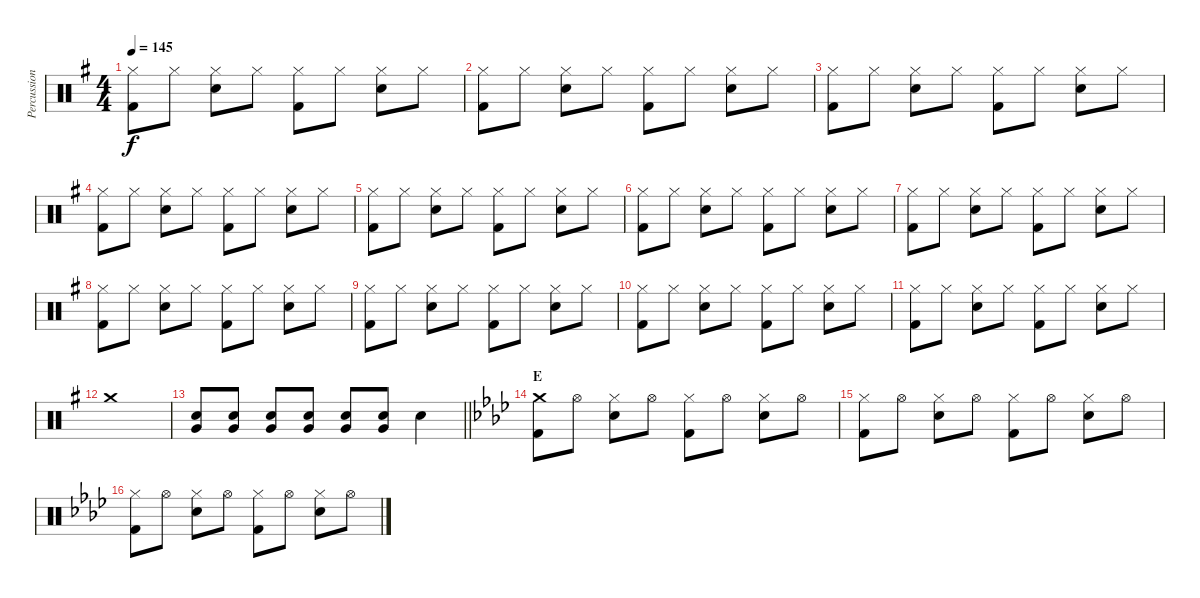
\track ("Percussion" "Percussion") {instrument percussion}
\staff {score}
\articulation defaults
\ts (4 4)
\tempo 145
\clef neutral
\ks g
("Hi-Hat (closed)" "Kick (hit) 2").8{dy f} "Hi-Hat (closed)".8 ("Hi-Hat (closed)" "Snare (hit) 2").8 "Hi-Hat (closed)".8 ("Hi-Hat (closed)" "Kick (hit) 2").8 "Hi-Hat (closed)".8 ("Hi-Hat (closed)" "Snare (hit) 2").8 "Hi-Hat (closed)".8 |
("Hi-Hat (closed)" "Kick (hit) 2").8 "Hi-Hat (closed)".8 ("Hi-Hat (closed)" "Snare (hit) 2").8 "Hi-Hat (closed)".8 ("Hi-Hat (closed)" "Kick (hit) 2").8 "Hi-Hat (closed)".8 ("Hi-Hat (closed)" "Snare (hit) 2").8 "Hi-Hat (closed)".8 |
("Hi-Hat (closed)" "Kick (hit) 2").8 "Hi-Hat (closed)".8 ("Hi-Hat (closed)" "Snare (hit) 2").8 "Hi-Hat (closed)".8 ("Hi-Hat (closed)" "Kick (hit) 2").8 "Hi-Hat (closed)".8 ("Hi-Hat (closed)" "Snare (hit) 2").8 "Hi-Hat (closed)".8 |
("Hi-Hat (closed)" "Kick (hit) 2").8 "Hi-Hat (closed)".8 ("Hi-Hat (closed)" "Snare (hit) 2").8 "Hi-Hat (closed)".8 ("Hi-Hat (closed)" "Kick (hit) 2").8 "Hi-Hat (closed)".8 ("Hi-Hat (closed)" "Snare (hit) 2").8 "Hi-Hat (closed)".8 |
("Hi-Hat (closed)" "Kick (hit) 2").8 "Hi-Hat (closed)".8 ("Hi-Hat (closed)" "Snare (hit) 2").8 "Hi-Hat (closed)".8 ("Hi-Hat (closed)" "Kick (hit) 2").8 "Hi-Hat (closed)".8 ("Hi-Hat (closed)" "Snare (hit) 2").8 "Hi-Hat (closed)".8 |
("Hi-Hat (closed)" "Kick (hit) 2").8 "Hi-Hat (closed)".8 ("Hi-Hat (closed)" "Snare (hit) 2").8 "Hi-Hat (closed)".8 ("Hi-Hat (closed)" "Kick (hit) 2").8 "Hi-Hat (closed)".8 ("Hi-Hat (closed)" "Snare (hit) 2").8 "Hi-Hat (closed)".8 |
("Hi-Hat (closed)" "Kick (hit) 2").8 "Hi-Hat (closed)".8 ("Hi-Hat (closed)" "Snare (hit) 2").8 "Hi-Hat (closed)".8 ("Hi-Hat (closed)" "Kick (hit) 2").8 "Hi-Hat (closed)".8 ("Hi-Hat (closed)" "Snare (hit) 2").8 "Hi-Hat (closed)".8 |
("Hi-Hat (closed)" "Kick (hit) 2").8 "Hi-Hat (closed)".8 ("Hi-Hat (closed)" "Snare (hit) 2").8 "Hi-Hat (closed)".8 ("Hi-Hat (closed)" "Kick (hit) 2").8 "Hi-Hat (closed)".8 ("Hi-Hat (closed)" "Snare (hit) 2").8 "Hi-Hat (closed)".8 |
("Hi-Hat (closed)" "Kick (hit) 2").8 "Hi-Hat (closed)".8 ("Hi-Hat (closed)" "Snare (hit) 2").8 "Hi-Hat (closed)".8 ("Hi-Hat (closed)" "Kick (hit) 2").8 "Hi-Hat (closed)".8 ("Hi-Hat (closed)" "Snare (hit) 2").8 "Hi-Hat (closed)".8 |
("Hi-Hat (closed)" "Kick (hit) 2").8 "Hi-Hat (closed)".8 ("Hi-Hat (closed)" "Snare (hit) 2").8 "Hi-Hat (closed)".8 ("Hi-Hat (closed)" "Kick (hit) 2").8 "Hi-Hat (closed)".8 ("Hi-Hat (closed)" "Snare (hit) 2").8 "Hi-Hat (closed)".8 |
("Hi-Hat (closed)" "Kick (hit) 2").8 "Hi-Hat (closed)".8 ("Hi-Hat (closed)" "Snare (hit) 2").8 "Hi-Hat (closed)".8 ("Hi-Hat (closed)" "Kick (hit) 2").8 "Hi-Hat (closed)".8 ("Hi-Hat (closed)" "Snare (hit) 2").8 "Hi-Hat (closed)".8 |
"Crash medium (hit)".1 |
\barLineRight lightlight
("Very Low Tom (hit)" "Snare (hit) 2").8 ("Very Low Tom (hit)" "Snare (hit) 2").8 ("Very Low Tom (hit)" "Snare (hit) 2").8 ("Very Low Tom (hit)" "Snare (hit) 2").8 ("Very Low Tom (hit)" "Snare (hit) 2").8 ("Very Low Tom (hit)" "Snare (hit) 2").8 "Snare (hit) 2".4 |
\section ("" "E")
\ks ab
("Crash medium (hit)" "Kick (hit) 2").8 "Hi-Hat (open)".8 ("Hi-Hat (closed)" "Snare (hit) 2").8 "Hi-Hat (open)".8 ("Hi-Hat (closed)" "Kick (hit) 2").8 "Hi-Hat (open)".8 ("Hi-Hat (closed)" "Snare (hit) 2").8 "Hi-Hat (open)".8 |
("Hi-Hat (closed)" "Kick (hit) 2").8 "Hi-Hat (open)".8 ("Hi-Hat (closed)" "Snare (hit) 2").8 "Hi-Hat (open)".8 ("Hi-Hat (closed)" "Kick (hit) 2").8 "Hi-Hat (open)".8 ("Hi-Hat (closed)" "Snare (hit) 2").8 "Hi-Hat (open)".8 |
("Hi-Hat (closed)" "Kick (hit) 2").8 "Hi-Hat (open)".8 ("Hi-Hat (closed)" "Snare (hit) 2").8 "Hi-Hat (open)".8 ("Hi-Hat (closed)" "Kick (hit) 2").8 "Hi-Hat (open)".8 ("Hi-Hat (closed)" "Snare (hit) 2").8 "Hi-Hat (open)".8
